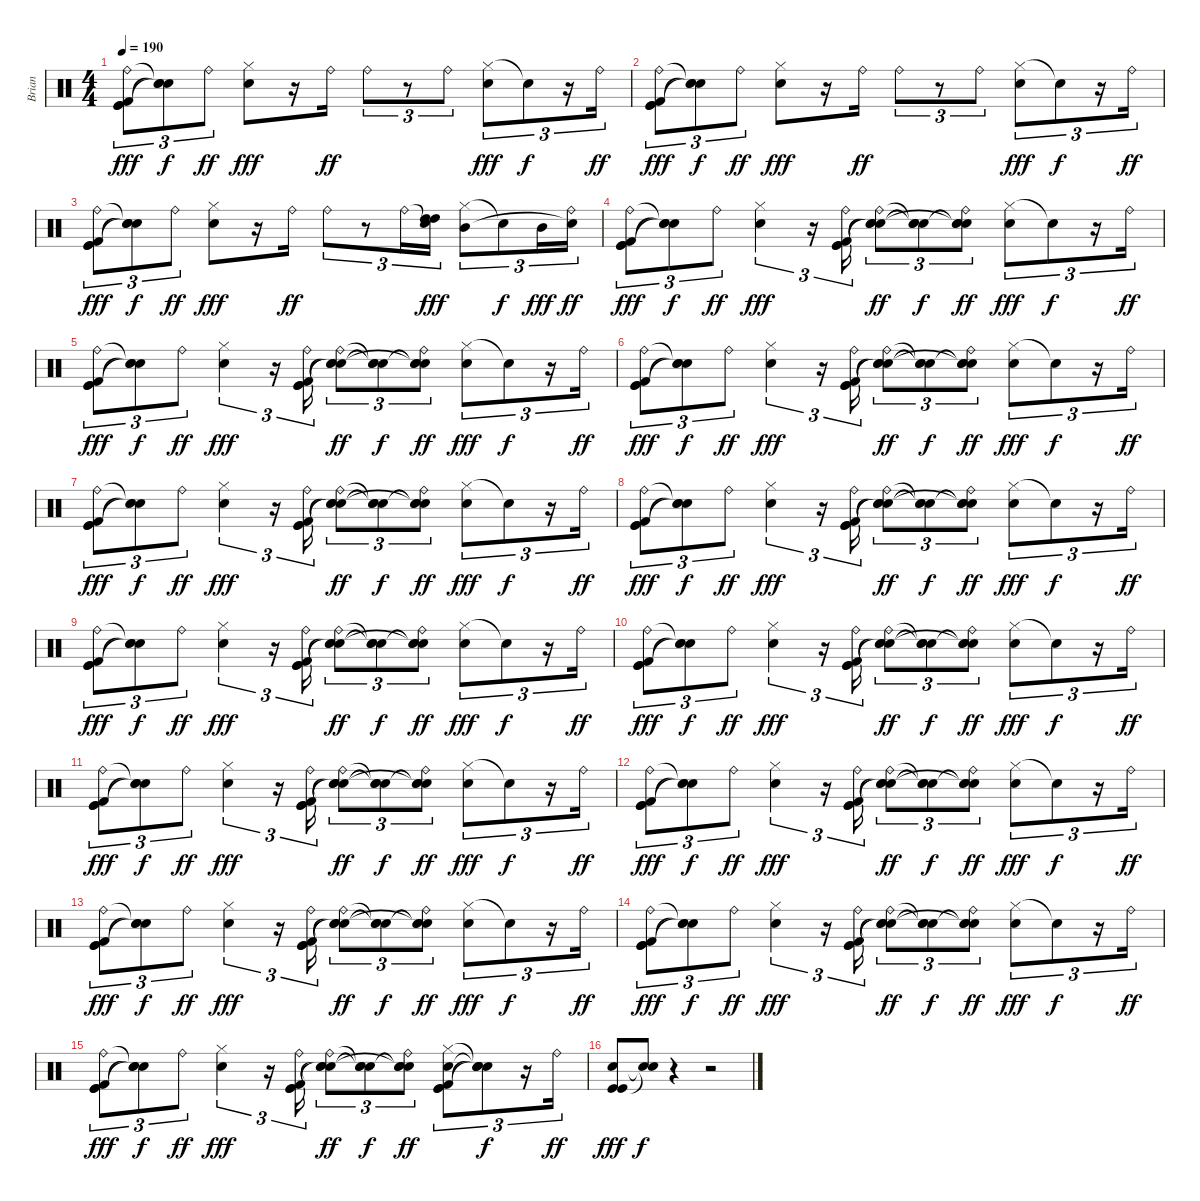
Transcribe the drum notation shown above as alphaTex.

\track ("Brian" "Brian") {instrument percussion}
\staff {score}
\articulation defaults
\ts (4 4)
\tempo 190
\clef neutral
\ks c
("Ride (bell)" "Kick (hit)" "Kick (hit) 2" "Kick (hit)").8{tu (3 2) dy fff} ("Snare (hit)"{t} "Snare (hit)"{t} "Snare (hit)"{t}).8{tu (3 2) dy f} "Ride (bell)".8{tu (3 2) dy ff} ("Hi-Hat (closed)" "Electric Snare (hit)").8{dy fff} r.16 "Ride (bell)".16{dy ff} "Ride (bell)".8{tu (3 2)} r.8{tu (3 2)} "Ride (bell)".8{tu (3 2)} ("Hi-Hat (closed)" "Electric Snare (hit)").8{tu (3 2) dy fff} "Snare (hit)"{t}.8{tu (3 2) dy f} r.16{tu (3 2)} "Ride (bell)".16{tu (3 2) dy ff} |
("Ride (bell)" "Kick (hit)" "Kick (hit) 2" "Kick (hit)").8{tu (3 2) dy fff} ("Snare (hit)"{t} "Snare (hit)"{t} "Snare (hit)"{t}).8{tu (3 2) dy f} "Ride (bell)".8{tu (3 2) dy ff} ("Hi-Hat (closed)" "Electric Snare (hit)").8{dy fff} r.16 "Ride (bell)".16{dy ff} "Ride (bell)".8{tu (3 2)} r.8{tu (3 2)} "Ride (bell)".8{tu (3 2)} ("Hi-Hat (closed)" "Electric Snare (hit)").8{tu (3 2) dy fff} "Snare (hit)"{t}.8{tu (3 2) dy f} r.16{tu (3 2)} "Ride (bell)".16{tu (3 2) dy ff} |
("Ride (bell)" "Kick (hit)" "Kick (hit) 2" "Kick (hit)").8{tu (3 2) dy fff} ("Snare (hit)"{t} "Snare (hit)"{t} "Snare (hit)"{t}).8{tu (3 2) dy f} "Ride (bell)".8{tu (3 2) dy ff} ("Hi-Hat (closed)" "Electric Snare (hit)").8{dy fff} r.16 "Ride (bell)".16{dy ff} "Ride (bell)".8{tu (3 2)} r.8{tu (3 2)} "Ride (bell)".16{tu (3 2)} ("Snare (hit)"{t} "High Tom (hit)" "High Tom (hit)").16{tu (3 2) dy fff} ("Hi-Hat (closed)" "Mid Tom (hit)").8{tu (3 2)} "Snare (hit)"{t}.8{tu (3 2) dy f} "Mid Tom (hit)".16{tu (3 2) dy fff} ("Ride (bell)" "Snare (hit)"{t}).16{tu (3 2) dy ff} |
("Ride (bell)" "Kick (hit)" "Kick (hit) 2" "Kick (hit)").8{tu (3 2) dy fff} ("Snare (hit)"{t} "Snare (hit)"{t} "Snare (hit)"{t}).8{tu (3 2) dy f} "Ride (bell)".8{tu (3 2) dy ff} ("Hi-Hat (closed)" "Electric Snare (hit)").4{tu (3 2) dy fff} r.16{tu (3 2)} ("Ride (bell)" "Kick (hit)" "Kick (hit) 2" "Kick (hit)").16{tu (3 2)} ("Ride (bell)" "Snare (hit)"{t} "Snare (hit)"{t} "Snare (hit)"{t}).8{tu (3 2) dy ff} ("Snare (hit)"{t} "Snare (hit)"{t} "Snare (hit)"{t}).8{tu (3 2) dy f} ("Ride (bell)" "Snare (hit)"{t} "Snare (hit)"{t} "Snare (hit)"{t}).8{tu (3 2) dy ff} ("Hi-Hat (closed)" "Electric Snare (hit)").8{tu (3 2) dy fff} "Snare (hit)"{t}.8{tu (3 2) dy f} r.16{tu (3 2)} "Ride (bell)".16{tu (3 2) dy ff} |
("Ride (bell)" "Kick (hit)" "Kick (hit) 2" "Kick (hit)").8{tu (3 2) dy fff} ("Snare (hit)"{t} "Snare (hit)"{t} "Snare (hit)"{t}).8{tu (3 2) dy f} "Ride (bell)".8{tu (3 2) dy ff} ("Hi-Hat (closed)" "Electric Snare (hit)").4{tu (3 2) dy fff} r.16{tu (3 2)} ("Ride (bell)" "Kick (hit)" "Kick (hit) 2" "Kick (hit)").16{tu (3 2)} ("Ride (bell)" "Snare (hit)"{t} "Snare (hit)"{t} "Snare (hit)"{t}).8{tu (3 2) dy ff} ("Snare (hit)"{t} "Snare (hit)"{t} "Snare (hit)"{t}).8{tu (3 2) dy f} ("Ride (bell)" "Snare (hit)"{t} "Snare (hit)"{t} "Snare (hit)"{t}).8{tu (3 2) dy ff} ("Hi-Hat (closed)" "Electric Snare (hit)").8{tu (3 2) dy fff} "Snare (hit)"{t}.8{tu (3 2) dy f} r.16{tu (3 2)} "Ride (bell)".16{tu (3 2) dy ff} |
("Ride (bell)" "Kick (hit)" "Kick (hit) 2" "Kick (hit)").8{tu (3 2) dy fff} ("Snare (hit)"{t} "Snare (hit)"{t} "Snare (hit)"{t}).8{tu (3 2) dy f} "Ride (bell)".8{tu (3 2) dy ff} ("Hi-Hat (closed)" "Electric Snare (hit)").4{tu (3 2) dy fff} r.16{tu (3 2)} ("Ride (bell)" "Kick (hit)" "Kick (hit) 2" "Kick (hit)").16{tu (3 2)} ("Ride (bell)" "Snare (hit)"{t} "Snare (hit)"{t} "Snare (hit)"{t}).8{tu (3 2) dy ff} ("Snare (hit)"{t} "Snare (hit)"{t} "Snare (hit)"{t}).8{tu (3 2) dy f} ("Ride (bell)" "Snare (hit)"{t} "Snare (hit)"{t} "Snare (hit)"{t}).8{tu (3 2) dy ff} ("Hi-Hat (closed)" "Electric Snare (hit)").8{tu (3 2) dy fff} "Snare (hit)"{t}.8{tu (3 2) dy f} r.16{tu (3 2)} "Ride (bell)".16{tu (3 2) dy ff} |
("Ride (bell)" "Kick (hit)" "Kick (hit) 2" "Kick (hit)").8{tu (3 2) dy fff} ("Snare (hit)"{t} "Snare (hit)"{t} "Snare (hit)"{t}).8{tu (3 2) dy f} "Ride (bell)".8{tu (3 2) dy ff} ("Hi-Hat (closed)" "Electric Snare (hit)").4{tu (3 2) dy fff} r.16{tu (3 2)} ("Ride (bell)" "Kick (hit)" "Kick (hit) 2" "Kick (hit)").16{tu (3 2)} ("Ride (bell)" "Snare (hit)"{t} "Snare (hit)"{t} "Snare (hit)"{t}).8{tu (3 2) dy ff} ("Snare (hit)"{t} "Snare (hit)"{t} "Snare (hit)"{t}).8{tu (3 2) dy f} ("Ride (bell)" "Snare (hit)"{t} "Snare (hit)"{t} "Snare (hit)"{t}).8{tu (3 2) dy ff} ("Hi-Hat (closed)" "Electric Snare (hit)").8{tu (3 2) dy fff} "Snare (hit)"{t}.8{tu (3 2) dy f} r.16{tu (3 2)} "Ride (bell)".16{tu (3 2) dy ff} |
("Ride (bell)" "Kick (hit)" "Kick (hit) 2" "Kick (hit)").8{tu (3 2) dy fff} ("Snare (hit)"{t} "Snare (hit)"{t} "Snare (hit)"{t}).8{tu (3 2) dy f} "Ride (bell)".8{tu (3 2) dy ff} ("Hi-Hat (closed)" "Electric Snare (hit)").4{tu (3 2) dy fff} r.16{tu (3 2)} ("Ride (bell)" "Kick (hit)" "Kick (hit) 2" "Kick (hit)").16{tu (3 2)} ("Ride (bell)" "Snare (hit)"{t} "Snare (hit)"{t} "Snare (hit)"{t}).8{tu (3 2) dy ff} ("Snare (hit)"{t} "Snare (hit)"{t} "Snare (hit)"{t}).8{tu (3 2) dy f} ("Ride (bell)" "Snare (hit)"{t} "Snare (hit)"{t} "Snare (hit)"{t}).8{tu (3 2) dy ff} ("Hi-Hat (closed)" "Electric Snare (hit)").8{tu (3 2) dy fff} "Snare (hit)"{t}.8{tu (3 2) dy f} r.16{tu (3 2)} "Ride (bell)".16{tu (3 2) dy ff} |
("Ride (bell)" "Kick (hit)" "Kick (hit) 2" "Kick (hit)").8{tu (3 2) dy fff} ("Snare (hit)"{t} "Snare (hit)"{t} "Snare (hit)"{t}).8{tu (3 2) dy f} "Ride (bell)".8{tu (3 2) dy ff} ("Hi-Hat (closed)" "Electric Snare (hit)").4{tu (3 2) dy fff} r.16{tu (3 2)} ("Ride (bell)" "Kick (hit)" "Kick (hit) 2" "Kick (hit)").16{tu (3 2)} ("Ride (bell)" "Snare (hit)"{t} "Snare (hit)"{t} "Snare (hit)"{t}).8{tu (3 2) dy ff} ("Snare (hit)"{t} "Snare (hit)"{t} "Snare (hit)"{t}).8{tu (3 2) dy f} ("Ride (bell)" "Snare (hit)"{t} "Snare (hit)"{t} "Snare (hit)"{t}).8{tu (3 2) dy ff} ("Hi-Hat (closed)" "Electric Snare (hit)").8{tu (3 2) dy fff} "Snare (hit)"{t}.8{tu (3 2) dy f} r.16{tu (3 2)} "Ride (bell)".16{tu (3 2) dy ff} |
("Ride (bell)" "Kick (hit)" "Kick (hit) 2" "Kick (hit)").8{tu (3 2) dy fff} ("Snare (hit)"{t} "Snare (hit)"{t} "Snare (hit)"{t}).8{tu (3 2) dy f} "Ride (bell)".8{tu (3 2) dy ff} ("Hi-Hat (closed)" "Electric Snare (hit)").4{tu (3 2) dy fff} r.16{tu (3 2)} ("Ride (bell)" "Kick (hit)" "Kick (hit) 2" "Kick (hit)").16{tu (3 2)} ("Ride (bell)" "Snare (hit)"{t} "Snare (hit)"{t} "Snare (hit)"{t}).8{tu (3 2) dy ff} ("Snare (hit)"{t} "Snare (hit)"{t} "Snare (hit)"{t}).8{tu (3 2) dy f} ("Ride (bell)" "Snare (hit)"{t} "Snare (hit)"{t} "Snare (hit)"{t}).8{tu (3 2) dy ff} ("Hi-Hat (closed)" "Electric Snare (hit)").8{tu (3 2) dy fff} "Snare (hit)"{t}.8{tu (3 2) dy f} r.16{tu (3 2)} "Ride (bell)".16{tu (3 2) dy ff} |
("Ride (bell)" "Kick (hit)" "Kick (hit) 2" "Kick (hit)").8{tu (3 2) dy fff} ("Snare (hit)"{t} "Snare (hit)"{t} "Snare (hit)"{t}).8{tu (3 2) dy f} "Ride (bell)".8{tu (3 2) dy ff} ("Hi-Hat (closed)" "Electric Snare (hit)").4{tu (3 2) dy fff} r.16{tu (3 2)} ("Ride (bell)" "Kick (hit)" "Kick (hit) 2" "Kick (hit)").16{tu (3 2)} ("Ride (bell)" "Snare (hit)"{t} "Snare (hit)"{t} "Snare (hit)"{t}).8{tu (3 2) dy ff} ("Snare (hit)"{t} "Snare (hit)"{t} "Snare (hit)"{t}).8{tu (3 2) dy f} ("Ride (bell)" "Snare (hit)"{t} "Snare (hit)"{t} "Snare (hit)"{t}).8{tu (3 2) dy ff} ("Hi-Hat (closed)" "Electric Snare (hit)").8{tu (3 2) dy fff} "Snare (hit)"{t}.8{tu (3 2) dy f} r.16{tu (3 2)} "Ride (bell)".16{tu (3 2) dy ff} |
("Ride (bell)" "Kick (hit)" "Kick (hit) 2" "Kick (hit)").8{tu (3 2) dy fff} ("Snare (hit)"{t} "Snare (hit)"{t} "Snare (hit)"{t}).8{tu (3 2) dy f} "Ride (bell)".8{tu (3 2) dy ff} ("Hi-Hat (closed)" "Electric Snare (hit)").4{tu (3 2) dy fff} r.16{tu (3 2)} ("Ride (bell)" "Kick (hit)" "Kick (hit) 2" "Kick (hit)").16{tu (3 2)} ("Ride (bell)" "Snare (hit)"{t} "Snare (hit)"{t} "Snare (hit)"{t}).8{tu (3 2) dy ff} ("Snare (hit)"{t} "Snare (hit)"{t} "Snare (hit)"{t}).8{tu (3 2) dy f} ("Ride (bell)" "Snare (hit)"{t} "Snare (hit)"{t} "Snare (hit)"{t}).8{tu (3 2) dy ff} ("Hi-Hat (closed)" "Electric Snare (hit)").8{tu (3 2) dy fff} "Snare (hit)"{t}.8{tu (3 2) dy f} r.16{tu (3 2)} "Ride (bell)".16{tu (3 2) dy ff} |
("Ride (bell)" "Kick (hit)" "Kick (hit) 2" "Kick (hit)").8{tu (3 2) dy fff} ("Snare (hit)"{t} "Snare (hit)"{t} "Snare (hit)"{t}).8{tu (3 2) dy f} "Ride (bell)".8{tu (3 2) dy ff} ("Hi-Hat (closed)" "Electric Snare (hit)").4{tu (3 2) dy fff} r.16{tu (3 2)} ("Ride (bell)" "Kick (hit)" "Kick (hit) 2" "Kick (hit)").16{tu (3 2)} ("Ride (bell)" "Snare (hit)"{t} "Snare (hit)"{t} "Snare (hit)"{t}).8{tu (3 2) dy ff} ("Snare (hit)"{t} "Snare (hit)"{t} "Snare (hit)"{t}).8{tu (3 2) dy f} ("Ride (bell)" "Snare (hit)"{t} "Snare (hit)"{t} "Snare (hit)"{t}).8{tu (3 2) dy ff} ("Hi-Hat (closed)" "Electric Snare (hit)").8{tu (3 2) dy fff} "Snare (hit)"{t}.8{tu (3 2) dy f} r.16{tu (3 2)} "Ride (bell)".16{tu (3 2) dy ff} |
("Ride (bell)" "Kick (hit)" "Kick (hit) 2" "Kick (hit)").8{tu (3 2) dy fff} ("Snare (hit)"{t} "Snare (hit)"{t} "Snare (hit)"{t}).8{tu (3 2) dy f} "Ride (bell)".8{tu (3 2) dy ff} ("Hi-Hat (closed)" "Electric Snare (hit)").4{tu (3 2) dy fff} r.16{tu (3 2)} ("Ride (bell)" "Kick (hit)" "Kick (hit) 2" "Kick (hit)").16{tu (3 2)} ("Ride (bell)" "Snare (hit)"{t} "Snare (hit)"{t} "Snare (hit)"{t}).8{tu (3 2) dy ff} ("Snare (hit)"{t} "Snare (hit)"{t} "Snare (hit)"{t}).8{tu (3 2) dy f} ("Ride (bell)" "Snare (hit)"{t} "Snare (hit)"{t} "Snare (hit)"{t}).8{tu (3 2) dy ff} ("Hi-Hat (closed)" "Electric Snare (hit)").8{tu (3 2) dy fff} "Snare (hit)"{t}.8{tu (3 2) dy f} r.16{tu (3 2)} "Ride (bell)".16{tu (3 2) dy ff} |
("Ride (bell)" "Kick (hit)" "Kick (hit) 2" "Kick (hit)").8{tu (3 2) dy fff} ("Snare (hit)"{t} "Snare (hit)"{t} "Snare (hit)"{t}).8{tu (3 2) dy f} "Ride (bell)".8{tu (3 2) dy ff} ("Hi-Hat (closed)" "Electric Snare (hit)").4{tu (3 2) dy fff} r.16{tu (3 2)} ("Ride (bell)" "Kick (hit)" "Kick (hit) 2" "Kick (hit)").16{tu (3 2)} ("Ride (bell)" "Snare (hit)"{t} "Snare (hit)"{t} "Snare (hit)"{t}).8{tu (3 2) dy ff} ("Snare (hit)"{t} "Snare (hit)"{t} "Snare (hit)"{t}).8{tu (3 2) dy f} ("Ride (bell)" "Snare (hit)"{t} "Snare (hit)"{t} "Snare (hit)"{t}).8{tu (3 2) dy ff} ("Hi-Hat (closed)" "Electric Snare (hit)" "Kick (hit)" "Kick (hit) 2" "Kick (hit)").8{tu (3 2)} ("Snare (hit)"{t} "Snare (hit)"{t} "Snare (hit)"{t} "Snare (hit)"{t}).8{tu (3 2) dy f} r.16{tu (3 2)} "Ride (bell)".16{tu (3 2) dy ff} |
("Electric Snare (hit)" "Kick (hit)" "Kick (hit)").8{dy fff} ("Snare (hit)"{t} "Snare (hit)"{t}).8{dy f} r.4 r.2
